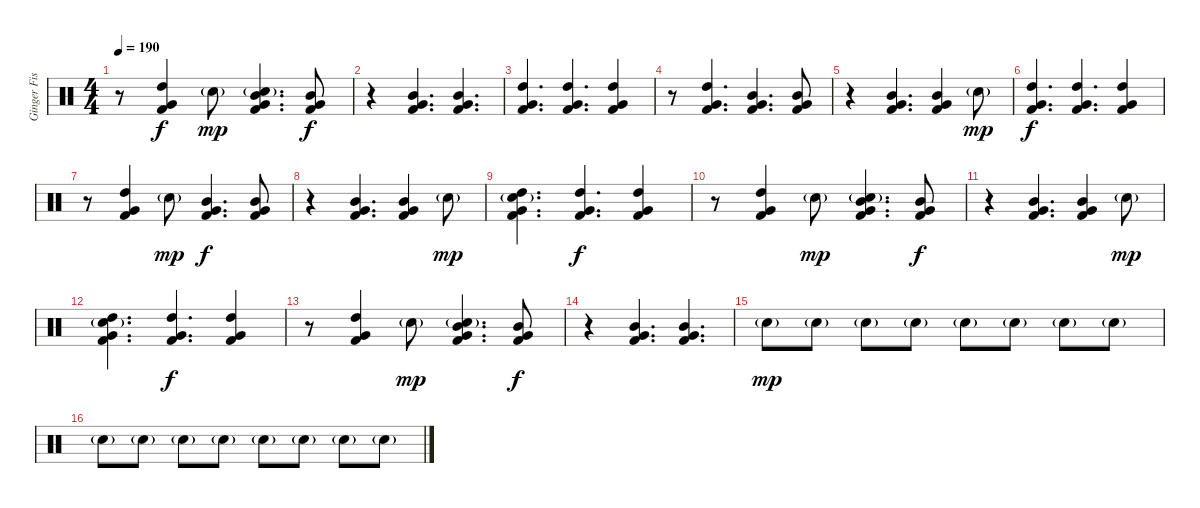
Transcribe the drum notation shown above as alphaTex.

\track ("Ginger Fish" "Ginger Fis") {instrument percussion}
\staff {score}
\articulation defaults
\ts (4 4)
\tempo 190
\clef neutral
\ks c
r.8{dy f} ("High Tom (hit)" "Very Low Tom (hit)" "Kick (hit) 2").4 "Electric Snare (hit)"{g}.8{dy mp} ("Mid Tom (hit)" "Very Low Tom (hit)" "Electric Snare (hit)"{g} "Kick (hit) 2").4{d} ("Mid Tom (hit)" "Very Low Tom (hit)" "Kick (hit) 2").8{dy f} |
r.4 ("Mid Tom (hit)" "Very Low Tom (hit)" "Kick (hit) 2").4{d} ("Mid Tom (hit)" "Very Low Tom (hit)" "Kick (hit) 2").4{d} |
("High Tom (hit)" "Very Low Tom (hit)" "Kick (hit) 2").4{d} ("High Tom (hit)" "Very Low Tom (hit)" "Kick (hit) 2").4{d} ("High Tom (hit)" "Very Low Tom (hit)" "Kick (hit) 2").4 |
r.8 ("High Tom (hit)" "Very Low Tom (hit)" "Kick (hit) 2").4{d} ("Mid Tom (hit)" "Very Low Tom (hit)" "Kick (hit) 2").4{d} ("Mid Tom (hit)" "Very Low Tom (hit)" "Kick (hit) 2").8 |
r.4 ("Mid Tom (hit)" "Very Low Tom (hit)" "Kick (hit) 2").4{d} ("Mid Tom (hit)" "Very Low Tom (hit)" "Kick (hit) 2").4 "Electric Snare (hit)"{g}.8{dy mp} |
("High Tom (hit)" "Very Low Tom (hit)" "Kick (hit) 2").4{d dy f} ("High Tom (hit)" "Very Low Tom (hit)" "Kick (hit) 2").4{d} ("High Tom (hit)" "Very Low Tom (hit)" "Kick (hit) 2").4 |
r.8 ("High Tom (hit)" "Very Low Tom (hit)" "Kick (hit) 2").4 "Electric Snare (hit)"{g}.8{dy mp} ("Mid Tom (hit)" "Very Low Tom (hit)" "Kick (hit) 2").4{d dy f} ("Mid Tom (hit)" "Very Low Tom (hit)" "Kick (hit) 2").8 |
r.4 ("Mid Tom (hit)" "Very Low Tom (hit)" "Kick (hit) 2").4{d} ("Mid Tom (hit)" "Very Low Tom (hit)" "Kick (hit) 2").4 "Electric Snare (hit)"{g}.8{dy mp} |
("High Tom (hit)" "Very Low Tom (hit)" "Electric Snare (hit)"{g} "Kick (hit) 2").4{d} ("High Tom (hit)" "Very Low Tom (hit)" "Kick (hit) 2").4{d dy f} ("High Tom (hit)" "Very Low Tom (hit)" "Kick (hit) 2").4 |
r.8 ("High Tom (hit)" "Very Low Tom (hit)" "Kick (hit) 2").4 "Electric Snare (hit)"{g}.8{dy mp} ("Mid Tom (hit)" "Very Low Tom (hit)" "Electric Snare (hit)"{g} "Kick (hit) 2").4{d} ("Mid Tom (hit)" "Very Low Tom (hit)" "Kick (hit) 2").8{dy f} |
r.4 ("Mid Tom (hit)" "Very Low Tom (hit)" "Kick (hit) 2").4{d} ("Mid Tom (hit)" "Very Low Tom (hit)" "Kick (hit) 2").4 "Electric Snare (hit)"{g}.8{dy mp} |
("High Tom (hit)" "Very Low Tom (hit)" "Electric Snare (hit)"{g} "Kick (hit) 2").4{d} ("High Tom (hit)" "Very Low Tom (hit)" "Kick (hit) 2").4{d dy f} ("High Tom (hit)" "Very Low Tom (hit)" "Kick (hit) 2").4 |
r.8 ("High Tom (hit)" "Very Low Tom (hit)" "Kick (hit) 2").4 "Electric Snare (hit)"{g}.8{dy mp} ("Mid Tom (hit)" "Very Low Tom (hit)" "Electric Snare (hit)"{g} "Kick (hit) 2").4{d} ("Mid Tom (hit)" "Very Low Tom (hit)" "Kick (hit) 2").8{dy f} |
r.4 ("Mid Tom (hit)" "Very Low Tom (hit)" "Kick (hit) 2").4{d} ("Mid Tom (hit)" "Very Low Tom (hit)" "Kick (hit) 2").4{d} |
"Electric Snare (hit)"{g}.8{dy mp} "Electric Snare (hit)"{g}.8 "Electric Snare (hit)"{g}.8 "Electric Snare (hit)"{g}.8 "Electric Snare (hit)"{g}.8 "Electric Snare (hit)"{g}.8 "Electric Snare (hit)"{g}.8 "Electric Snare (hit)"{g}.8 |
"Electric Snare (hit)"{g}.8 "Electric Snare (hit)"{g}.8 "Electric Snare (hit)"{g}.8 "Electric Snare (hit)"{g}.8 "Electric Snare (hit)"{g}.8 "Electric Snare (hit)"{g}.8 "Electric Snare (hit)"{g}.8 "Electric Snare (hit)"{g}.8
